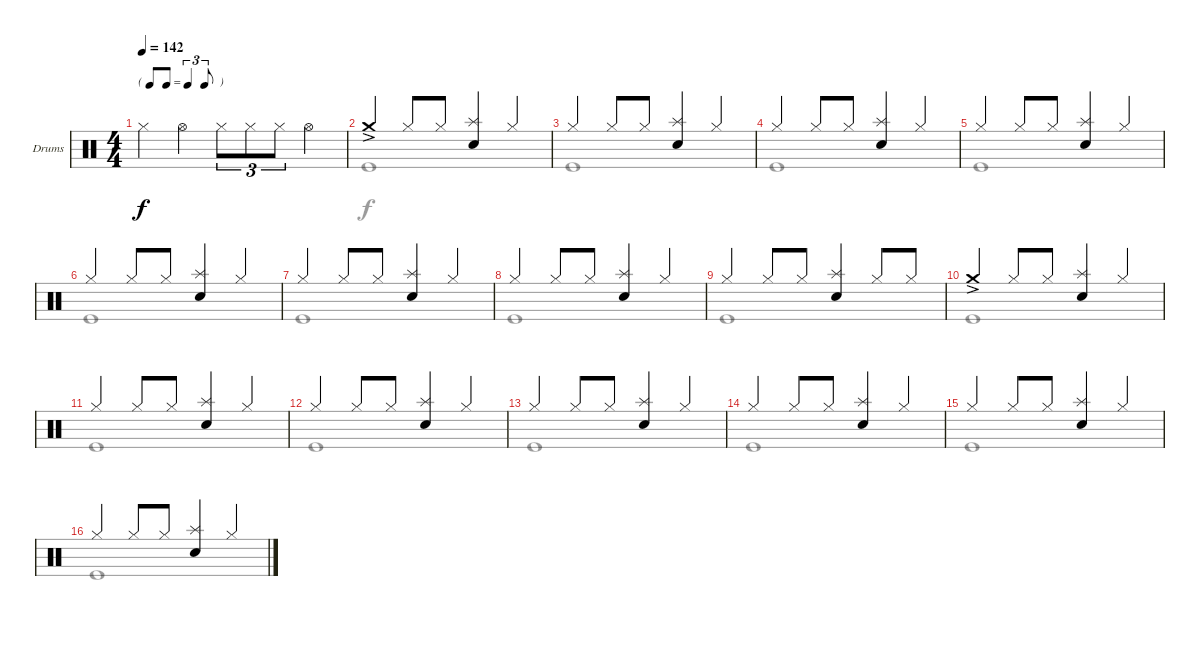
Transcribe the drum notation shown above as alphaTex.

\defaultSystemsLayout 4
\bracketExtendMode groupsimilarinstruments
\firstSystemTrackNameOrientation horizontal
\otherSystemsTrackNameOrientation horizontal
\track ("Drumkit" "Drums") {instrument percussion}
\staff {score}
\articulation defaults
\voice
\ts (4 4)
\tf triplet8th
\tempo 142
\clef neutral
\ks c "Hi-Hat (closed)".4{dy f} "Hi-Hat (open)".4 "Hi-Hat (closed)".8{tu (3 2)} "Hi-Hat (closed)".8{tu (3 2)} "Hi-Hat (closed)".8{tu (3 2)} "Hi-Hat (open)".4
|
"Crash medium (hit)"{ac}.4 "Hi-Hat (closed)".8 "Hi-Hat (closed)".8 ("Snare (hit) 2" "Splash (hit)").4 "Hi-Hat (closed)".4 |
"Hi-Hat (closed)".4 "Hi-Hat (closed)".8 "Hi-Hat (closed)".8 ("Snare (hit) 2" "Splash (hit)").4 "Hi-Hat (closed)".4 |
"Hi-Hat (closed)".4 "Hi-Hat (closed)".8 "Hi-Hat (closed)".8 ("Snare (hit) 2" "Splash (hit)").4 "Hi-Hat (closed)".4 |
"Hi-Hat (closed)".4 "Hi-Hat (closed)".8 "Hi-Hat (closed)".8 ("Snare (hit) 2" "Splash (hit)").4 "Hi-Hat (closed)".4 |
"Hi-Hat (closed)".4 "Hi-Hat (closed)".8 "Hi-Hat (closed)".8 ("Snare (hit) 2" "Splash (hit)").4 "Hi-Hat (closed)".4 |
"Hi-Hat (closed)".4 "Hi-Hat (closed)".8 "Hi-Hat (closed)".8 ("Snare (hit) 2" "Splash (hit)").4 "Hi-Hat (closed)".4 |
"Hi-Hat (closed)".4 "Hi-Hat (closed)".8 "Hi-Hat (closed)".8 ("Snare (hit) 2" "Splash (hit)").4 "Hi-Hat (closed)".4 |
"Hi-Hat (closed)".4 "Hi-Hat (closed)".8 "Hi-Hat (closed)".8 ("Snare (hit) 2" "Splash (hit)").4 "Hi-Hat (closed)".8 "Hi-Hat (closed)".8 |
"Crash medium (hit)"{ac}.4 "Hi-Hat (closed)".8 "Hi-Hat (closed)".8 ("Snare (hit) 2" "Splash (hit)").4 "Hi-Hat (closed)".4 |
"Hi-Hat (closed)".4 "Hi-Hat (closed)".8 "Hi-Hat (closed)".8 ("Snare (hit) 2" "Splash (hit)").4 "Hi-Hat (closed)".4 |
"Hi-Hat (closed)".4 "Hi-Hat (closed)".8 "Hi-Hat (closed)".8 ("Snare (hit) 2" "Splash (hit)").4 "Hi-Hat (closed)".4 |
"Hi-Hat (closed)".4 "Hi-Hat (closed)".8 "Hi-Hat (closed)".8 ("Snare (hit) 2" "Splash (hit)").4 "Hi-Hat (closed)".4 |
"Hi-Hat (closed)".4 "Hi-Hat (closed)".8 "Hi-Hat (closed)".8 ("Snare (hit) 2" "Splash (hit)").4 "Hi-Hat (closed)".4 |
"Hi-Hat (closed)".4 "Hi-Hat (closed)".8 "Hi-Hat (closed)".8 ("Snare (hit) 2" "Splash (hit)").4 "Hi-Hat (closed)".4 |
"Hi-Hat (closed)".4 "Hi-Hat (closed)".8 "Hi-Hat (closed)".8 ("Snare (hit) 2" "Splash (hit)").4 "Hi-Hat (closed)".4
\voice
\clef neutral
\ottava regular
\simile none
\ks c
|
"Kick (hit)".1 |
"Kick (hit)".1 |
"Kick (hit)".1 |
"Kick (hit)".1 |
"Kick (hit)".1 |
"Kick (hit)".1 |
"Kick (hit)".1 |
"Kick (hit)".1 |
"Kick (hit)".1 |
"Kick (hit)".1 |
"Kick (hit)".1 |
"Kick (hit)".1 |
"Kick (hit)".1 |
"Kick (hit)".1 |
"Kick (hit)".1
